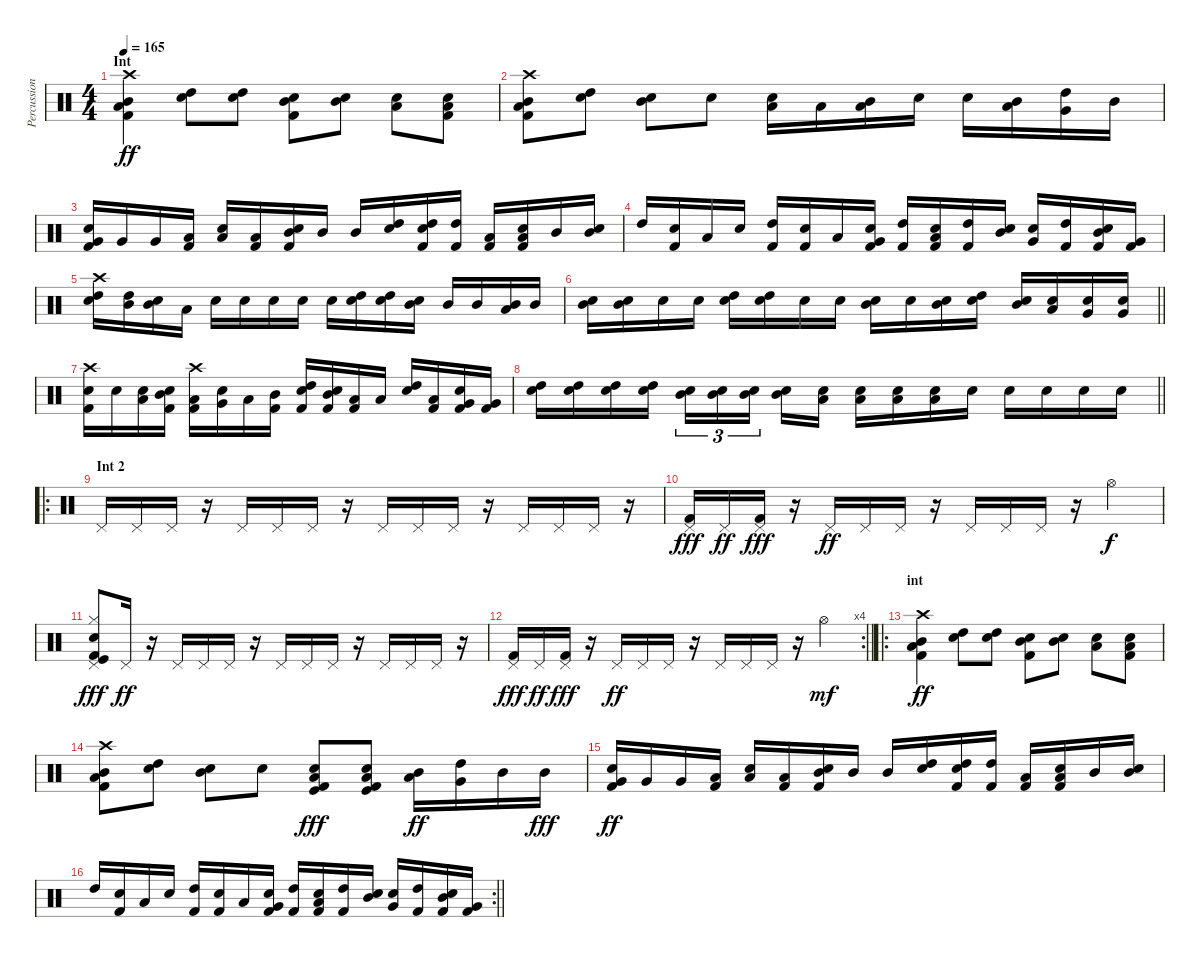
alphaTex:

\track ("Percussion" "Percussion") {instrument percussion}
\staff {score}
\articulation defaults
\ts (4 4)
\section ("" "Int")
\tempo 165
\clef neutral
\ks c
("Crash high (hit)" "Low Tom (hit)" "Mid Tom (hit)" "Kick (hit) 2").4{dy ff} ("High Tom (hit)" "Snare (hit) 2").8 ("High Tom (hit)" "Snare (hit) 2").8 ("Mid Tom (hit)" "Snare (hit) 2" "Kick (hit) 2").8 ("Mid Tom (hit)" "Snare (hit) 2").8 ("Low Tom (hit)" "Snare (hit) 2").8 ("Low Tom (hit)" "Snare (hit) 2" "Kick (hit) 2").8 |
("Crash high (hit)" "Low Tom (hit)" "Mid Tom (hit)" "Kick (hit) 2").8 ("High Tom (hit)" "Snare (hit) 2").8 ("Mid Tom (hit)" "Snare (hit) 2").8 "Snare (hit) 2".8 ("Low Tom (hit)" "Snare (hit) 2").16 "Low Tom (hit)".16 ("Mid Tom (hit)" "Low Tom (hit)").16 "Snare (hit) 2".16 "Snare (hit) 2".16 ("Low Tom (hit)" "Mid Tom (hit)").16 ("Very Low Tom (hit)" "High Tom (hit)").16 "Mid Tom (hit)".16 |
("Very Low Tom (hit)" "Snare (hit) 2" "Kick (hit) 2").16 "Very Low Tom (hit)".16 "Very Low Tom (hit)".16 ("Low Tom (hit)" "Kick (hit) 2").16 ("Low Tom (hit)" "Snare (hit) 2").16 ("Low Tom (hit)" "Kick (hit) 2").16 ("Mid Tom (hit)" "Snare (hit) 2" "Kick (hit) 2").16 "Mid Tom (hit)".16 "Mid Tom (hit)".16 ("High Tom (hit)" "Snare (hit) 2").16 ("High Tom (hit)" "Snare (hit) 2" "Kick (hit) 2").16 ("High Tom (hit)" "Kick (hit) 2").16 ("Low Tom (hit)" "Kick (hit) 2").16 ("Low Tom (hit)" "Snare (hit) 2" "Kick (hit) 2").16 "Mid Tom (hit)".16 ("Mid Tom (hit)" "Snare (hit) 2").16 |
"High Tom (hit)".16 ("Snare (hit) 2" "Kick (hit) 2").16 "Low Tom (hit)".16 "Snare (hit) 2".16 ("High Tom (hit)" "Kick (hit) 2").16 ("Snare (hit) 2" "Kick (hit) 2").16 "Low Tom (hit)".16 ("Snare (hit) 2" "Very Low Tom (hit)" "Kick (hit) 2").16 ("High Tom (hit)" "Kick (hit) 2").16 ("Snare (hit) 2" "Low Tom (hit)" "Kick (hit) 2").16 ("High Tom (hit)" "Kick (hit) 2").16 ("Snare (hit) 2" "Mid Tom (hit)").16 ("Snare (hit) 2" "Very Low Tom (hit)").16 ("High Tom (hit)" "Kick (hit) 2").16 ("Snare (hit) 2" "Mid Tom (hit)" "Kick (hit) 2").16 ("Very Low Tom (hit)" "Kick (hit) 2").16 |
("Crash high (hit)" "High Tom (hit)" "Snare (hit) 2").16 ("High Tom (hit)" "Mid Tom (hit)").16 ("Mid Tom (hit)" "Snare (hit) 2").16 "Low Tom (hit)".16 "Snare (hit) 2".16 "Snare (hit) 2".16 "Electric Snare (hit)".16 "Electric Snare (hit)".16 "Snare (hit) 2".16 ("High Tom (hit)" "Electric Snare (hit)").16 ("High Tom (hit)" "Snare (hit) 2").16 ("Mid Tom (hit)" "Snare (hit) 2").16 "Mid Tom (hit)".16 "Mid Tom (hit)".16 ("Mid Tom (hit)" "Low Tom (hit)").16 "Mid Tom (hit)".16 |
\barLineRight lightlight
("Mid Tom (hit)" "Snare (hit) 2").16 ("Mid Tom (hit)" "Snare (hit) 2").16 "Snare (hit) 2".16 "Electric Snare (hit)".16 ("High Tom (hit)" "Electric Snare (hit)").16 ("High Tom (hit)" "Snare (hit) 2").16 "Electric Snare (hit)".16 "Snare (hit) 2".16 ("Mid Tom (hit)" "Snare (hit) 2").16 "Electric Snare (hit)".16 ("Mid Tom (hit)" "Snare (hit) 2").16 ("High Tom (hit)" "Snare (hit) 2").16 ("Mid Tom (hit)" "Electric Snare (hit)").16 ("Low Tom (hit)" "Snare (hit) 2").16 ("Very Low Tom (hit)" "Snare (hit) 2").16 ("Very Low Tom (hit)" "Snare (hit) 2").16 |
("Crash high (hit)" "Snare (hit) 2" "Kick (hit) 2").16 "Snare (hit) 2".16 ("Low Tom (hit)" "Snare (hit) 2").16 ("Mid Tom (hit)" "Snare (hit) 2" "Kick (hit) 2").16 ("Crash high (hit)" "Low Tom (hit)" "Kick (hit) 2").16 ("Very Low Tom (hit)" "Snare (hit) 2").16 "Low Tom (hit)".16 ("Mid Tom (hit)" "Kick (hit) 2").16 ("High Tom (hit)" "Snare (hit) 2" "Kick (hit) 2").16 ("Mid Tom (hit)" "Snare (hit) 2" "Kick (hit) 2").16 ("Low Tom (hit)" "Kick (hit) 2").16 "Low Tom (hit)".16 ("High Tom (hit)" "Snare (hit) 2").16 ("Low Tom (hit)" "Kick (hit) 2").16 ("Very Low Tom (hit)" "Snare (hit) 2" "Kick (hit) 2").16 ("Very Low Tom (hit)" "Kick (hit) 2").16 |
\barLineRight lightlight
("High Tom (hit)" "Snare (hit) 2").16 ("High Tom (hit)" "Snare (hit) 2").16 ("High Tom (hit)" "Snare (hit) 2").16 ("High Tom (hit)" "Snare (hit) 2").16 ("Mid Tom (hit)" "Snare (hit) 2").16{tu (3 2)} ("Mid Tom (hit)" "Snare (hit) 2").16{tu (3 2)} ("Mid Tom (hit)" "Snare (hit) 2").16{tu (3 2) beam splitsecondary} ("Mid Tom (hit)" "Snare (hit) 2").16 ("Low Tom (hit)" "Snare (hit) 2").16 ("Low Tom (hit)" "Snare (hit) 2").16 ("Low Tom (hit)" "Snare (hit) 2").16 ("Low Tom (hit)" "Snare (hit) 2").16 "Snare (hit) 2".16 "Snare (hit) 2".16 "Snare (hit) 2".16 "Snare (hit) 2".16 "Snare (hit) 2".16 |
\ro
\section ("" "Int 2")
"Pedal Hi-Hat (hit)".16 "Pedal Hi-Hat (hit)".16 "Pedal Hi-Hat (hit)".16 r.16 "Pedal Hi-Hat (hit)".16 "Pedal Hi-Hat (hit)".16 "Pedal Hi-Hat (hit)".16 r.16 "Pedal Hi-Hat (hit)".16 "Pedal Hi-Hat (hit)".16 "Pedal Hi-Hat (hit)".16 r.16 "Pedal Hi-Hat (hit)".16 "Pedal Hi-Hat (hit)".16 "Pedal Hi-Hat (hit)".16 r.16 |
("Pedal Hi-Hat (hit)" "Kick (hit) 2").16{dy fff} "Pedal Hi-Hat (hit)".16{dy ff} ("Pedal Hi-Hat (hit)" "Kick (hit) 2").16{dy fff} r.16 "Pedal Hi-Hat (hit)".16{dy ff} "Pedal Hi-Hat (hit)".16 "Pedal Hi-Hat (hit)".16 r.16 "Pedal Hi-Hat (hit)".16 "Pedal Hi-Hat (hit)".16 "Pedal Hi-Hat (hit)".16 r.16 "Hi-Hat (open)".4{dy f} |
("Hi-Hat (closed)" "Pedal Hi-Hat (hit)" "Snare (hit) 2" "Kick (hit)" "Kick (hit) 2").8{dy fff} "Pedal Hi-Hat (hit)".16{dy ff} r.16 "Pedal Hi-Hat (hit)".16 "Pedal Hi-Hat (hit)".16 "Pedal Hi-Hat (hit)".16 r.16 "Pedal Hi-Hat (hit)".16 "Pedal Hi-Hat (hit)".16 "Pedal Hi-Hat (hit)".16 r.16 "Pedal Hi-Hat (hit)".16 "Pedal Hi-Hat (hit)".16 "Pedal Hi-Hat (hit)".16 r.16 |
\rc 4
\barLineRight lightlight
("Pedal Hi-Hat (hit)" "Kick (hit) 2").16{dy fff} "Pedal Hi-Hat (hit)".16{dy ff} ("Pedal Hi-Hat (hit)" "Kick (hit) 2").16{dy fff} r.16 "Pedal Hi-Hat (hit)".16{dy ff} "Pedal Hi-Hat (hit)".16 "Pedal Hi-Hat (hit)".16 r.16 "Pedal Hi-Hat (hit)".16 "Pedal Hi-Hat (hit)".16 "Pedal Hi-Hat (hit)".16 r.16 "Hi-Hat (open)".4{dy mf} |
\ro
\section ("" "int")
("Crash high (hit)" "Low Tom (hit)" "Mid Tom (hit)" "Kick (hit) 2").4{dy ff} ("High Tom (hit)" "Snare (hit) 2").8 ("High Tom (hit)" "Snare (hit) 2").8 ("Mid Tom (hit)" "Snare (hit) 2" "Kick (hit) 2").8 ("Mid Tom (hit)" "Snare (hit) 2").8 ("Low Tom (hit)" "Snare (hit) 2").8 ("Low Tom (hit)" "Snare (hit) 2" "Kick (hit) 2").8 |
("Crash high (hit)" "Low Tom (hit)" "Mid Tom (hit)" "Kick (hit) 2").8 ("High Tom (hit)" "Snare (hit) 2").8 ("Mid Tom (hit)" "Snare (hit) 2").8 "Snare (hit) 2".8 ("Low Tom (hit)" "Snare (hit) 2" "Kick (hit)" "Kick (hit) 2").8{dy fff} ("Low Tom (hit)" "Snare (hit) 2" "Kick (hit)" "Kick (hit) 2").8 ("Low Tom (hit)" "Mid Tom (hit)").16{dy ff} ("Very Low Tom (hit)" "High Tom (hit)").16 "Mid Tom (hit)".16 "Mid Tom (hit)".16{dy fff} |
("Very Low Tom (hit)" "Snare (hit) 2" "Kick (hit) 2").16{dy ff} "Very Low Tom (hit)".16 "Very Low Tom (hit)".16 ("Low Tom (hit)" "Kick (hit) 2").16 ("Low Tom (hit)" "Snare (hit) 2").16 ("Low Tom (hit)" "Kick (hit) 2").16 ("Mid Tom (hit)" "Snare (hit) 2" "Kick (hit) 2").16 "Mid Tom (hit)".16 "Mid Tom (hit)".16 ("High Tom (hit)" "Snare (hit) 2").16 ("High Tom (hit)" "Snare (hit) 2" "Kick (hit) 2").16 ("High Tom (hit)" "Kick (hit) 2").16 ("Low Tom (hit)" "Kick (hit) 2").16 ("Low Tom (hit)" "Snare (hit) 2" "Kick (hit) 2").16 "Mid Tom (hit)".16 ("Mid Tom (hit)" "Snare (hit) 2").16 |
\rc 2
\barLineRight lightlight "High Tom (hit)".16
("Snare (hit) 2" "Kick (hit) 2").16 "Low Tom (hit)".16 "Snare (hit) 2".16 ("High Tom (hit)" "Kick (hit) 2").16 ("Snare (hit) 2" "Kick (hit) 2").16 "Low Tom (hit)".16 ("Snare (hit) 2" "Very Low Tom (hit)" "Kick (hit) 2").16 ("High Tom (hit)" "Kick (hit) 2").16 ("Snare (hit) 2" "Low Tom (hit)" "Kick (hit) 2").16 ("High Tom (hit)" "Kick (hit) 2").16 ("Snare (hit) 2" "Mid Tom (hit)").16 ("Snare (hit) 2" "Very Low Tom (hit)").16 ("High Tom (hit)" "Kick (hit) 2").16 ("Snare (hit) 2" "Mid Tom (hit)" "Kick (hit) 2").16 ("Very Low Tom (hit)" "Kick (hit) 2").16
